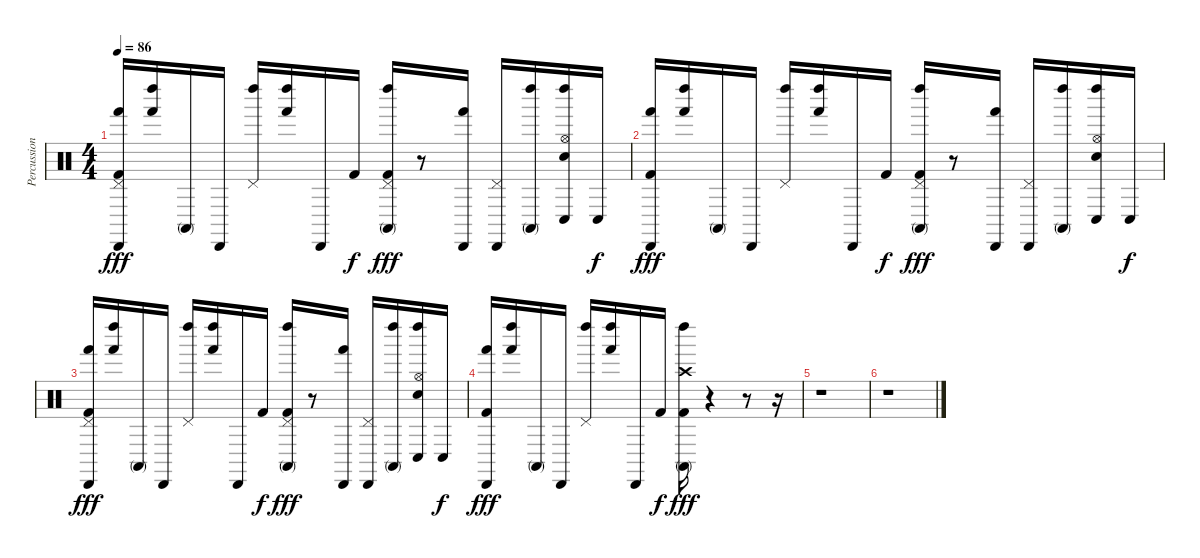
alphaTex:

\track ("Percussion" "Percussion") {instrument percussion}
\staff {score}
\articulation defaults
\ts (4 4)
\tempo 86
\clef neutral
\ks c
("Kick (hit) 2" "Hand (hit)" "Cabasa (hit)" "Pedal Hi-Hat (hit)").16{dy fff} ("Hand (hit)" "Left Maraca (hit)").16 "Conga high (mute)".16 "Cabasa (hit)".16 ("Pedal Hi-Hat (hit)" "Left Maraca (hit)").16 ("Left Maraca (hit)" "Hand (hit)").16 "Cabasa (hit)".16 "Kick (hit) 2".16{dy f} ("Pedal Hi-Hat (hit)" "Left Maraca (hit)" "Conga high (mute)" "Kick (hit) 2").16{dy fff} r.8 ("Cabasa (hit)" "Hand (hit)").16 ("Pedal Hi-Hat (hit)" "Cabasa (hit)").16 ("Left Maraca (hit)" "Conga high (mute)").16 ("Hi-Hat (open)" "Snare (hit) 2" "Left Maraca (hit)" "Conga low (hit)").16 "Conga low (hit)".16{dy f} |
("Hand (hit)" "Cabasa (hit)" "Kick (hit) 2").16{dy fff} ("Hand (hit)" "Left Maraca (hit)").16 "Conga high (mute)".16 "Cabasa (hit)".16 ("Pedal Hi-Hat (hit)" "Left Maraca (hit)").16 ("Left Maraca (hit)" "Hand (hit)").16 "Cabasa (hit)".16 "Kick (hit) 2".16{dy f} ("Pedal Hi-Hat (hit)" "Left Maraca (hit)" "Conga high (mute)" "Kick (hit) 2").16{dy fff} r.8 ("Cabasa (hit)" "Hand (hit)").16 ("Pedal Hi-Hat (hit)" "Cabasa (hit)").16 ("Left Maraca (hit)" "Conga high (mute)").16 ("Hi-Hat (open)" "Snare (hit) 2" "Left Maraca (hit)" "Conga low (hit)").16 "Conga low (hit)".16{dy f} |
("Kick (hit) 2" "Hand (hit)" "Cabasa (hit)" "Pedal Hi-Hat (hit)").16{dy fff} ("Hand (hit)" "Left Maraca (hit)").16 "Conga high (mute)".16 "Cabasa (hit)".16 ("Pedal Hi-Hat (hit)" "Left Maraca (hit)").16 ("Left Maraca (hit)" "Hand (hit)").16 "Cabasa (hit)".16 "Kick (hit) 2".16{dy f} ("Pedal Hi-Hat (hit)" "Left Maraca (hit)" "Conga high (mute)" "Kick (hit) 2").16{dy fff} r.8 ("Cabasa (hit)" "Hand (hit)").16 ("Pedal Hi-Hat (hit)" "Cabasa (hit)").16 ("Left Maraca (hit)" "Conga high (mute)").16 ("Hi-Hat (open)" "Snare (hit) 2" "Left Maraca (hit)" "Conga low (hit)").16 "Conga low (hit)".16{dy f} |
("Hand (hit)" "Cabasa (hit)" "Kick (hit) 2").16{dy fff} ("Hand (hit)" "Left Maraca (hit)").16 "Conga high (mute)".16 "Cabasa (hit)".16 ("Pedal Hi-Hat (hit)" "Left Maraca (hit)").16 ("Left Maraca (hit)" "Hand (hit)").16 "Cabasa (hit)".16 "Kick (hit) 2".16{dy f} ("Conga high (mute)" "Left Maraca (hit)" "Crash high (hit)" "Kick (hit) 2").16{dy fff} r.4 r.8 r.16 |
r.1 |
r.1
